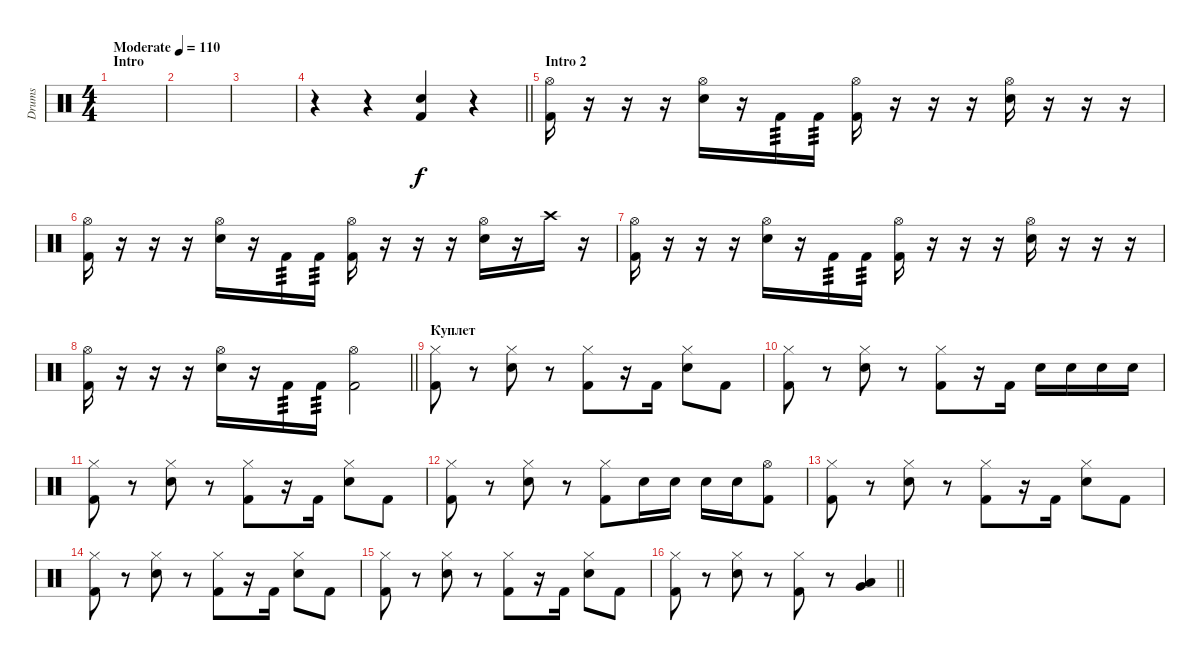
\track ("Drums" "Drums") {instrument percussion}
\staff {score}
\articulation defaults
\ts (4 4)
\section ("" "Intro")
\tempo (110 "Moderate")
\clef neutral
\ks c
|
|
|
\barLineRight lightlight
r.4 r.4 ("Kick (hit) 2" "Electric Snare (hit)").4 r.4 |
\section ("" "Intro 2")
("Hi-Hat (open)" "Kick (hit) 2").16 r.16 r.16 r.16 ("Hi-Hat (open)" "Electric Snare (hit)").16 r.16 "Kick (hit) 2".16{tp 3} "Kick (hit) 2".16{tp 3} ("Hi-Hat (open)" "Kick (hit) 2").16 r.16 r.16 r.16 ("Hi-Hat (open)" "Electric Snare (hit)").16 r.16 r.16 r.16 |
("Hi-Hat (open)" "Kick (hit) 2").16 r.16 r.16 r.16 ("Hi-Hat (open)" "Electric Snare (hit)").16 r.16 "Kick (hit) 2".16{tp 3} "Kick (hit) 2".16{tp 3} ("Hi-Hat (open)" "Kick (hit) 2").16 r.16 r.16 r.16 ("Hi-Hat (open)" "Electric Snare (hit)").16 r.16 "Crash high (hit)".16 r.16 |
("Hi-Hat (open)" "Kick (hit) 2").16 r.16 r.16 r.16 ("Hi-Hat (open)" "Electric Snare (hit)").16 r.16 "Kick (hit) 2".16{tp 3} "Kick (hit) 2".16{tp 3} ("Hi-Hat (open)" "Kick (hit) 2").16 r.16 r.16 r.16 ("Hi-Hat (open)" "Electric Snare (hit)").16 r.16 r.16 r.16 |
\barLineRight lightlight
("Hi-Hat (open)" "Kick (hit) 2").16 r.16 r.16 r.16 ("Hi-Hat (open)" "Electric Snare (hit)").16 r.16 "Kick (hit) 2".16{tp 3} "Kick (hit) 2".16{tp 3} ("Hi-Hat (open)" "Kick (hit) 2").2 |
\section ("" "Куплет")
("Hi-Hat (closed)" "Kick (hit) 2").8 r.8 ("Hi-Hat (closed)" "Electric Snare (hit)").8 r.8 ("Hi-Hat (closed)" "Kick (hit) 2").8 r.16 "Kick (hit) 2".16 ("Hi-Hat (closed)" "Electric Snare (hit)").8 "Kick (hit) 2".8 |
("Hi-Hat (closed)" "Kick (hit) 2").8 r.8 ("Hi-Hat (closed)" "Electric Snare (hit)").8 r.8 ("Hi-Hat (closed)" "Kick (hit) 2").8 r.16 "Kick (hit) 2".16 "Electric Snare (hit)".16 "Electric Snare (hit)".16 "Electric Snare (hit)".16 "Electric Snare (hit)".16 |
("Hi-Hat (closed)" "Kick (hit) 2").8 r.8 ("Hi-Hat (closed)" "Electric Snare (hit)").8 r.8 ("Hi-Hat (closed)" "Kick (hit) 2").8 r.16 "Kick (hit) 2".16 ("Hi-Hat (closed)" "Electric Snare (hit)").8 "Kick (hit) 2".8 |
("Hi-Hat (closed)" "Kick (hit) 2").8 r.8 ("Hi-Hat (closed)" "Electric Snare (hit)").8 r.8 ("Hi-Hat (closed)" "Kick (hit) 2").8 "Electric Snare (hit)".16 "Electric Snare (hit)".16 "Electric Snare (hit)".16 "Electric Snare (hit)".16 ("Hi-Hat (open)" "Kick (hit) 2").8 |
("Hi-Hat (closed)" "Kick (hit) 2").8 r.8 ("Hi-Hat (closed)" "Electric Snare (hit)").8 r.8 ("Hi-Hat (closed)" "Kick (hit) 2").8 r.16 "Kick (hit) 2".16 ("Hi-Hat (closed)" "Electric Snare (hit)").8 "Kick (hit) 2".8 |
("Hi-Hat (closed)" "Kick (hit) 2").8 r.8 ("Hi-Hat (closed)" "Electric Snare (hit)").8 r.8 ("Hi-Hat (closed)" "Kick (hit) 2").8 r.16 "Kick (hit) 2".16 ("Hi-Hat (closed)" "Electric Snare (hit)").8 "Kick (hit) 2".8 |
("Hi-Hat (closed)" "Kick (hit) 2").8 r.8 ("Hi-Hat (closed)" "Electric Snare (hit)").8 r.8 ("Hi-Hat (closed)" "Kick (hit) 2").8 r.16 "Kick (hit) 2".16 ("Hi-Hat (closed)" "Electric Snare (hit)").8 "Kick (hit) 2".8 |
\barLineRight lightlight
("Hi-Hat (closed)" "Kick (hit) 2").8 r.8 ("Hi-Hat (closed)" "Electric Snare (hit)").8 r.8 ("Hi-Hat (closed)" "Kick (hit) 2").8 r.8 ("Low Floor Tom (hit)" "Very Low Tom (hit)").4
